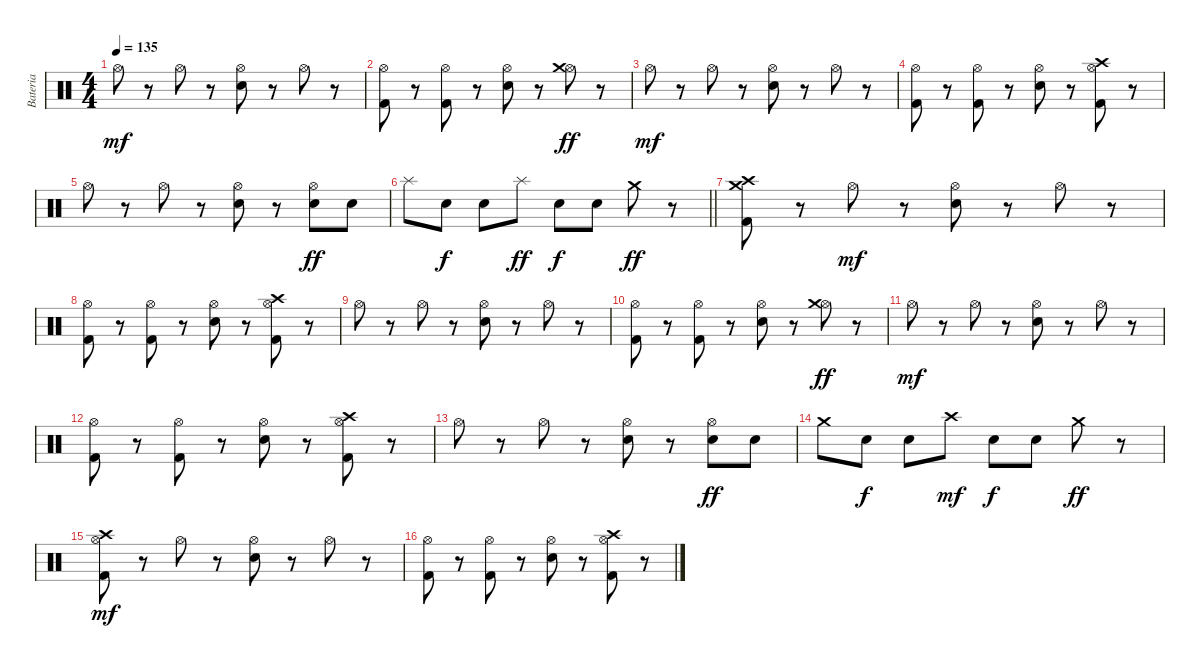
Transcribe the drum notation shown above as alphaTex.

\track ("Bateria" "Bateria") {instrument percussion}
\staff {score}
\articulation defaults
\ts (4 4)
\tempo 135
\clef neutral
\ks c "Hi-Hat (open)".8{dy mf}
r.8 "Hi-Hat (open)".8 r.8 ("Hi-Hat (open)" "Electric Snare (hit)").8 r.8 "Hi-Hat (open)".8 r.8 |
("Hi-Hat (open)" "Kick (hit) 2").8 r.8 ("Hi-Hat (open)" "Kick (hit) 2").8 r.8 ("Hi-Hat (open)" "Electric Snare (hit)").8 r.8 ("Hi-Hat (open)" "Crash medium (hit)").8{dy ff} r.8 |
"Hi-Hat (open)".8{dy mf} r.8 "Hi-Hat (open)".8 r.8 ("Hi-Hat (open)" "Electric Snare (hit)").8 r.8 "Hi-Hat (open)".8 r.8 |
("Hi-Hat (open)" "Kick (hit) 2").8 r.8 ("Hi-Hat (open)" "Kick (hit) 2").8 r.8 ("Hi-Hat (open)" "Electric Snare (hit)").8 r.8 ("Hi-Hat (open)" "Crash high (hit)" "Kick (hit) 2").8 r.8 |
"Hi-Hat (open)".8 r.8 "Hi-Hat (open)".8 r.8 ("Hi-Hat (open)" "Electric Snare (hit)").8 r.8 ("Hi-Hat (open)" "Electric Snare (hit)").8{dy ff} "Electric Snare (hit)".8 |
\barLineRight lightlight "Splash (hit)".8 "Electric Snare (hit)".8{dy f} "Electric Snare (hit)".8 "Splash (hit)".8{dy ff} "Electric Snare (hit)".8{dy f} "Electric Snare (hit)".8 "Crash medium (hit)".8{dy ff}
r.8 |
("Crash high (hit)" "Crash medium (hit)" "Kick (hit) 2").8 r.8 "Hi-Hat (open)".8{dy mf} r.8 ("Hi-Hat (open)" "Electric Snare (hit)").8 r.8 "Hi-Hat (open)".8 r.8 |
("Hi-Hat (open)" "Kick (hit) 2").8 r.8 ("Hi-Hat (open)" "Kick (hit) 2").8 r.8 ("Hi-Hat (open)" "Electric Snare (hit)").8 r.8 ("Hi-Hat (open)" "Crash high (hit)" "Kick (hit) 2").8 r.8 |
"Hi-Hat (open)".8 r.8 "Hi-Hat (open)".8 r.8 ("Hi-Hat (open)" "Electric Snare (hit)").8 r.8 "Hi-Hat (open)".8 r.8 |
("Hi-Hat (open)" "Kick (hit) 2").8 r.8 ("Hi-Hat (open)" "Kick (hit) 2").8 r.8 ("Hi-Hat (open)" "Electric Snare (hit)").8 r.8 ("Hi-Hat (open)" "Crash medium (hit)").8{dy ff} r.8 |
"Hi-Hat (open)".8{dy mf} r.8 "Hi-Hat (open)".8 r.8 ("Hi-Hat (open)" "Electric Snare (hit)").8 r.8 "Hi-Hat (open)".8 r.8 |
("Hi-Hat (open)" "Kick (hit) 2").8 r.8 ("Hi-Hat (open)" "Kick (hit) 2").8 r.8 ("Hi-Hat (open)" "Electric Snare (hit)").8 r.8 ("Hi-Hat (open)" "Crash high (hit)" "Kick (hit) 2").8 r.8 |
"Hi-Hat (open)".8 r.8 "Hi-Hat (open)".8 r.8 ("Hi-Hat (open)" "Electric Snare (hit)").8 r.8 ("Hi-Hat (open)" "Electric Snare (hit)").8{dy ff} "Electric Snare (hit)".8 |
"Crash medium (hit)".8 "Electric Snare (hit)".8{dy f} "Electric Snare (hit)".8 "Crash high (hit)".8{dy mf} "Electric Snare (hit)".8{dy f} "Electric Snare (hit)".8 "Crash medium (hit)".8{dy ff} r.8 |
("Hi-Hat (open)" "Crash high (hit)" "Kick (hit) 2").8{dy mf} r.8 "Hi-Hat (open)".8 r.8 ("Hi-Hat (open)" "Electric Snare (hit)").8 r.8 "Hi-Hat (open)".8 r.8 |
("Hi-Hat (open)" "Kick (hit) 2").8 r.8 ("Hi-Hat (open)" "Kick (hit) 2").8 r.8 ("Hi-Hat (open)" "Electric Snare (hit)").8 r.8 ("Hi-Hat (open)" "Crash high (hit)" "Kick (hit) 2").8 r.8
